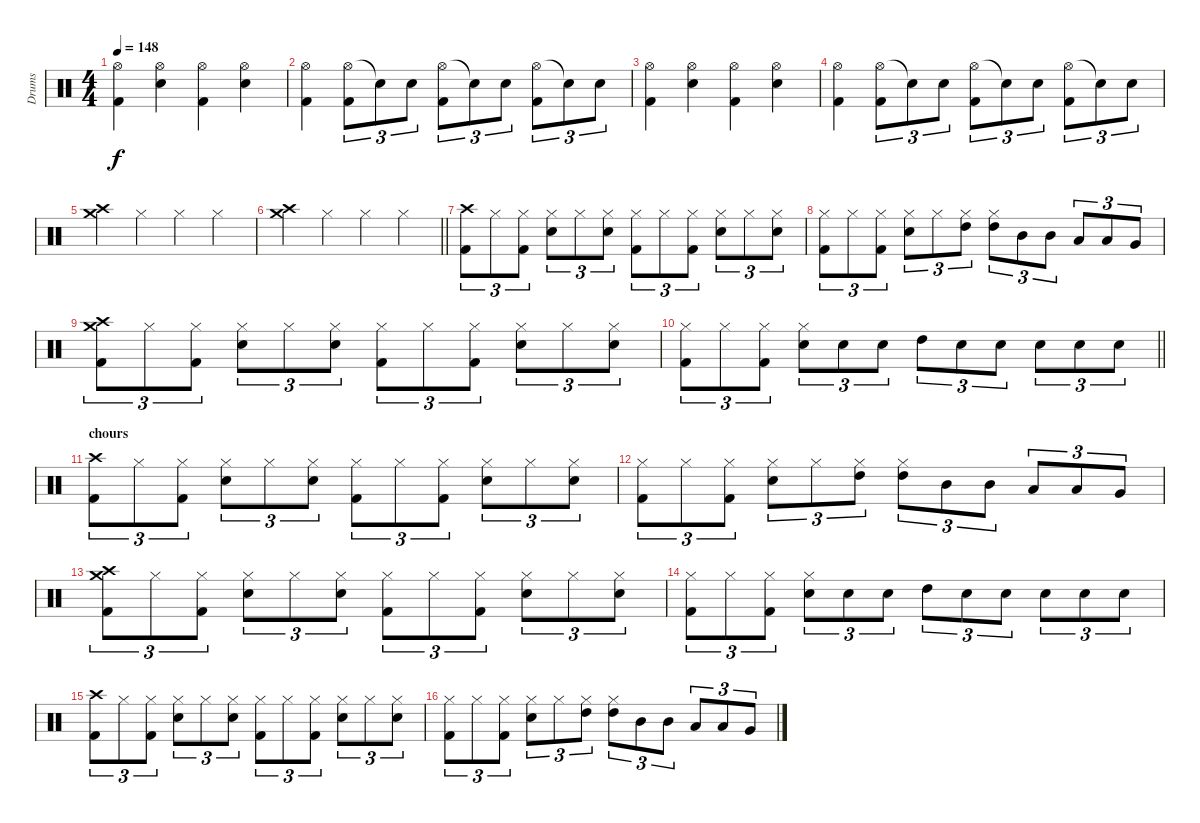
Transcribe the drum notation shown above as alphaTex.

\track ("Drums" "Drums") {instrument percussion}
\staff {score}
\articulation defaults
\ts (4 4)
\tempo 148
\clef neutral
\ks c
("Hi-Hat (open)" "Kick (hit) 2").4{dy f} ("Hi-Hat (open)" "Snare (hit) 2").4 ("Hi-Hat (open)" "Kick (hit) 2").4 ("Hi-Hat (open)" "Snare (hit) 2").4 |
("Hi-Hat (open)" "Kick (hit) 2").4 ("Hi-Hat (open)" "Kick (hit) 2").8{tu (3 2)} "Snare (hit)"{t}.8{tu (3 2)} "Snare (hit) 2".8{tu (3 2)} ("Hi-Hat (open)" "Kick (hit) 2").8{tu (3 2)} "Snare (hit)"{t}.8{tu (3 2)} "Snare (hit) 2".8{tu (3 2)} ("Hi-Hat (open)" "Kick (hit) 2").8{tu (3 2)} "Snare (hit) 2"{t}.8{tu (3 2)} "Snare (hit) 2".8{tu (3 2)} |
("Hi-Hat (open)" "Kick (hit) 2").4 ("Hi-Hat (open)" "Snare (hit) 2").4 ("Hi-Hat (open)" "Kick (hit) 2").4 ("Hi-Hat (open)" "Snare (hit) 2").4 |
("Hi-Hat (open)" "Kick (hit) 2").4 ("Hi-Hat (open)" "Kick (hit) 2").8{tu (3 2)} "Snare (hit)"{t}.8{tu (3 2)} "Snare (hit) 2".8{tu (3 2)} ("Hi-Hat (open)" "Kick (hit) 2").8{tu (3 2)} "Snare (hit)"{t}.8{tu (3 2)} "Snare (hit) 2".8{tu (3 2)} ("Hi-Hat (open)" "Kick (hit) 2").8{tu (3 2)} "Snare (hit) 2"{t}.8{tu (3 2)} "Snare (hit) 2".8{tu (3 2)} |
("Crash medium (hit)" "Crash high (hit)").4 "Hi-Hat (closed)".4 "Hi-Hat (closed)".4 "Hi-Hat (closed)".4 |
\barLineRight lightlight
("Crash medium (hit)" "Crash high (hit)").4 "Hi-Hat (closed)".4 "Hi-Hat (closed)".4 "Hi-Hat (closed)".4 |
("Crash high (hit)" "Kick (hit) 2").8{tu (3 2)} "Hi-Hat (closed)".8{tu (3 2)} ("Hi-Hat (closed)" "Kick (hit) 2").8{tu (3 2)} ("Hi-Hat (closed)" "Snare (hit) 2").8{tu (3 2)} "Hi-Hat (closed)".8{tu (3 2)} ("Hi-Hat (closed)" "Snare (hit) 2").8{tu (3 2)} ("Hi-Hat (closed)" "Kick (hit) 2").8{tu (3 2)} "Hi-Hat (closed)".8{tu (3 2)} ("Hi-Hat (closed)" "Kick (hit) 2").8{tu (3 2)} ("Hi-Hat (closed)" "Snare (hit) 2").8{tu (3 2)} "Hi-Hat (closed)".8{tu (3 2)} ("Hi-Hat (closed)" "Snare (hit) 2").8{tu (3 2)} |
("Hi-Hat (closed)" "Kick (hit) 2").8{tu (3 2)} "Hi-Hat (closed)".8{tu (3 2)} ("Hi-Hat (closed)" "Kick (hit) 2").8{tu (3 2)} ("Hi-Hat (closed)" "Snare (hit) 2").8{tu (3 2)} "Hi-Hat (closed)".8{tu (3 2)} ("Hi-Hat (closed)" "High Tom (hit)").8{tu (3 2)} ("Hi-Hat (closed)" "High Tom (hit)").8{tu (3 2)} "Mid Tom (hit)".8{tu (3 2)} "Mid Tom (hit)".8{tu (3 2)} "Low Tom (hit)".8{tu (3 2)} "Low Tom (hit)".8{tu (3 2)} "Very Low Tom (hit)".8{tu (3 2)} |
("Crash high (hit)" "Crash medium (hit)" "Kick (hit) 2").8{tu (3 2)} "Hi-Hat (closed)".8{tu (3 2)} ("Hi-Hat (closed)" "Kick (hit) 2").8{tu (3 2)} ("Hi-Hat (closed)" "Snare (hit) 2").8{tu (3 2)} "Hi-Hat (closed)".8{tu (3 2)} ("Hi-Hat (closed)" "Snare (hit) 2").8{tu (3 2)} ("Hi-Hat (closed)" "Kick (hit) 2").8{tu (3 2)} "Hi-Hat (closed)".8{tu (3 2)} ("Hi-Hat (closed)" "Kick (hit) 2").8{tu (3 2)} ("Hi-Hat (closed)" "Snare (hit) 2").8{tu (3 2)} "Hi-Hat (closed)".8{tu (3 2)} ("Hi-Hat (closed)" "Snare (hit) 2").8{tu (3 2)} |
\barLineRight lightlight
("Hi-Hat (closed)" "Kick (hit) 2").8{tu (3 2)} "Hi-Hat (closed)".8{tu (3 2)} ("Hi-Hat (closed)" "Kick (hit) 2").8{tu (3 2)} ("Hi-Hat (closed)" "Snare (hit) 2").8{tu (3 2)} "Snare (hit) 2".8{tu (3 2)} "Snare (hit) 2".8{tu (3 2)} "High Tom (hit)".8{tu (3 2)} "Snare (hit) 2".8{tu (3 2)} "Snare (hit) 2".8{tu (3 2)} "Snare (hit) 2".8{tu (3 2)} "Snare (hit) 2".8{tu (3 2)} "Snare (hit) 2".8{tu (3 2)} |
\section ("" "chours")
("Crash high (hit)" "Kick (hit) 2").8{tu (3 2)} "Hi-Hat (closed)".8{tu (3 2)} ("Hi-Hat (closed)" "Kick (hit) 2").8{tu (3 2)} ("Hi-Hat (closed)" "Snare (hit) 2").8{tu (3 2)} "Hi-Hat (closed)".8{tu (3 2)} ("Hi-Hat (closed)" "Snare (hit) 2").8{tu (3 2)} ("Hi-Hat (closed)" "Kick (hit) 2").8{tu (3 2)} "Hi-Hat (closed)".8{tu (3 2)} ("Hi-Hat (closed)" "Kick (hit) 2").8{tu (3 2)} ("Hi-Hat (closed)" "Snare (hit) 2").8{tu (3 2)} "Hi-Hat (closed)".8{tu (3 2)} ("Hi-Hat (closed)" "Snare (hit) 2").8{tu (3 2)} |
("Hi-Hat (closed)" "Kick (hit) 2").8{tu (3 2)} "Hi-Hat (closed)".8{tu (3 2)} ("Hi-Hat (closed)" "Kick (hit) 2").8{tu (3 2)} ("Hi-Hat (closed)" "Snare (hit) 2").8{tu (3 2)} "Hi-Hat (closed)".8{tu (3 2)} ("Hi-Hat (closed)" "High Tom (hit)").8{tu (3 2)} ("Hi-Hat (closed)" "High Tom (hit)").8{tu (3 2)} "Mid Tom (hit)".8{tu (3 2)} "Mid Tom (hit)".8{tu (3 2)} "Low Tom (hit)".8{tu (3 2)} "Low Tom (hit)".8{tu (3 2)} "Very Low Tom (hit)".8{tu (3 2)} |
("Crash high (hit)" "Crash medium (hit)" "Kick (hit) 2").8{tu (3 2)} "Hi-Hat (closed)".8{tu (3 2)} ("Hi-Hat (closed)" "Kick (hit) 2").8{tu (3 2)} ("Hi-Hat (closed)" "Snare (hit) 2").8{tu (3 2)} "Hi-Hat (closed)".8{tu (3 2)} ("Hi-Hat (closed)" "Snare (hit) 2").8{tu (3 2)} ("Hi-Hat (closed)" "Kick (hit) 2").8{tu (3 2)} "Hi-Hat (closed)".8{tu (3 2)} ("Hi-Hat (closed)" "Kick (hit) 2").8{tu (3 2)} ("Hi-Hat (closed)" "Snare (hit) 2").8{tu (3 2)} "Hi-Hat (closed)".8{tu (3 2)} ("Hi-Hat (closed)" "Snare (hit) 2").8{tu (3 2)} |
("Hi-Hat (closed)" "Kick (hit) 2").8{tu (3 2)} "Hi-Hat (closed)".8{tu (3 2)} ("Hi-Hat (closed)" "Kick (hit) 2").8{tu (3 2)} ("Hi-Hat (closed)" "Snare (hit) 2").8{tu (3 2)} "Snare (hit) 2".8{tu (3 2)} "Snare (hit) 2".8{tu (3 2)} "High Tom (hit)".8{tu (3 2)} "Snare (hit) 2".8{tu (3 2)} "Snare (hit) 2".8{tu (3 2)} "Snare (hit) 2".8{tu (3 2)} "Snare (hit) 2".8{tu (3 2)} "Snare (hit) 2".8{tu (3 2)} |
("Crash high (hit)" "Kick (hit) 2").8{tu (3 2)} "Hi-Hat (closed)".8{tu (3 2)} ("Hi-Hat (closed)" "Kick (hit) 2").8{tu (3 2)} ("Hi-Hat (closed)" "Snare (hit) 2").8{tu (3 2)} "Hi-Hat (closed)".8{tu (3 2)} ("Hi-Hat (closed)" "Snare (hit) 2").8{tu (3 2)} ("Hi-Hat (closed)" "Kick (hit) 2").8{tu (3 2)} "Hi-Hat (closed)".8{tu (3 2)} ("Hi-Hat (closed)" "Kick (hit) 2").8{tu (3 2)} ("Hi-Hat (closed)" "Snare (hit) 2").8{tu (3 2)} "Hi-Hat (closed)".8{tu (3 2)} ("Hi-Hat (closed)" "Snare (hit) 2").8{tu (3 2)} |
("Hi-Hat (closed)" "Kick (hit) 2").8{tu (3 2)} "Hi-Hat (closed)".8{tu (3 2)} ("Hi-Hat (closed)" "Kick (hit) 2").8{tu (3 2)} ("Hi-Hat (closed)" "Snare (hit) 2").8{tu (3 2)} "Hi-Hat (closed)".8{tu (3 2)} ("Hi-Hat (closed)" "High Tom (hit)").8{tu (3 2)} ("Hi-Hat (closed)" "High Tom (hit)").8{tu (3 2)} "Mid Tom (hit)".8{tu (3 2)} "Mid Tom (hit)".8{tu (3 2)} "Low Tom (hit)".8{tu (3 2)} "Low Tom (hit)".8{tu (3 2)} "Very Low Tom (hit)".8{tu (3 2)}
